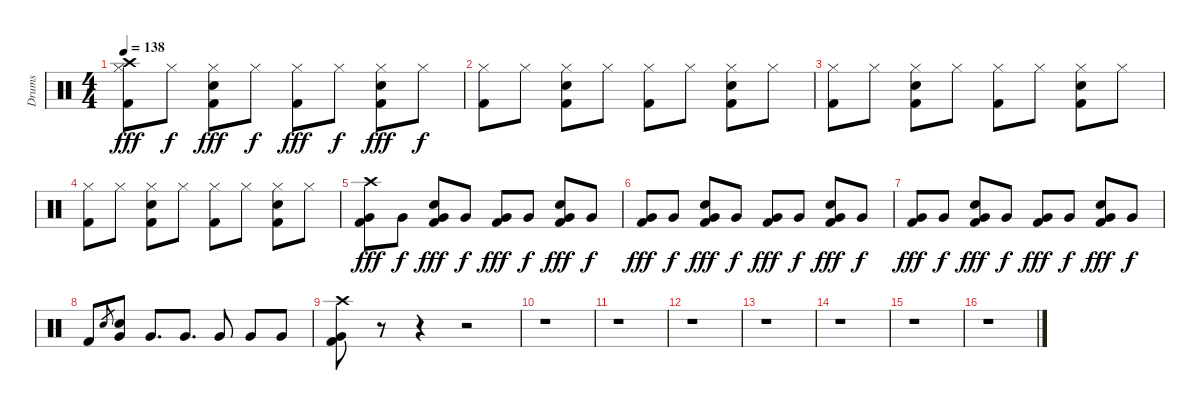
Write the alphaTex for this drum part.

\track ("Drums" "Drums") {instrument percussion}
\staff {score}
\articulation defaults
\ts (4 4)
\tempo 138
\clef neutral
\ks c
("Crash high (hit)" "Hi-Hat (closed)" "Kick (hit) 2").8{dy fff} "Hi-Hat (closed)".8{dy f} ("Hi-Hat (closed)" "Electric Snare (hit)" "Kick (hit) 2").8{dy fff} "Hi-Hat (closed)".8{dy f} ("Hi-Hat (closed)" "Kick (hit) 2").8{dy fff} "Hi-Hat (closed)".8{dy f} ("Hi-Hat (closed)" "Electric Snare (hit)" "Kick (hit) 2").8{dy fff} "Hi-Hat (closed)".8{dy f} |
("Hi-Hat (closed)" "Kick (hit) 2").8 "Hi-Hat (closed)".8 ("Hi-Hat (closed)" "Electric Snare (hit)" "Kick (hit) 2").8 "Hi-Hat (closed)".8 ("Hi-Hat (closed)" "Kick (hit) 2").8 "Hi-Hat (closed)".8 ("Hi-Hat (closed)" "Electric Snare (hit)" "Kick (hit) 2").8 "Hi-Hat (closed)".8 |
("Hi-Hat (closed)" "Kick (hit) 2").8 "Hi-Hat (closed)".8 ("Hi-Hat (closed)" "Electric Snare (hit)" "Kick (hit) 2").8 "Hi-Hat (closed)".8 ("Hi-Hat (closed)" "Kick (hit) 2").8 "Hi-Hat (closed)".8 ("Hi-Hat (closed)" "Electric Snare (hit)" "Kick (hit) 2").8 "Hi-Hat (closed)".8 |
("Hi-Hat (closed)" "Kick (hit) 2").8 "Hi-Hat (closed)".8 ("Hi-Hat (closed)" "Electric Snare (hit)" "Kick (hit) 2").8 "Hi-Hat (closed)".8 ("Hi-Hat (closed)" "Kick (hit) 2").8 "Hi-Hat (closed)".8 ("Hi-Hat (closed)" "Electric Snare (hit)" "Kick (hit) 2").8 "Hi-Hat (closed)".8 |
("Crash high (hit)" "Very Low Tom (hit)" "Kick (hit) 2").8{dy fff} "Very Low Tom (hit)".8{dy f} ("Electric Snare (hit)" "Very Low Tom (hit)" "Kick (hit) 2").8{dy fff} "Very Low Tom (hit)".8{dy f} ("Very Low Tom (hit)" "Kick (hit) 2").8{dy fff} "Very Low Tom (hit)".8{dy f} ("Electric Snare (hit)" "Very Low Tom (hit)" "Kick (hit) 2").8{dy fff} "Very Low Tom (hit)".8{dy f} |
("Very Low Tom (hit)" "Kick (hit) 2").8{dy fff} "Very Low Tom (hit)".8{dy f} ("Electric Snare (hit)" "Very Low Tom (hit)" "Kick (hit) 2").8{dy fff} "Very Low Tom (hit)".8{dy f} ("Very Low Tom (hit)" "Kick (hit) 2").8{dy fff} "Very Low Tom (hit)".8{dy f} ("Electric Snare (hit)" "Very Low Tom (hit)" "Kick (hit) 2").8{dy fff} "Very Low Tom (hit)".8{dy f} |
("Very Low Tom (hit)" "Kick (hit) 2").8{dy fff} "Very Low Tom (hit)".8{dy f} ("Electric Snare (hit)" "Very Low Tom (hit)" "Kick (hit) 2").8{dy fff} "Very Low Tom (hit)".8{dy f} ("Very Low Tom (hit)" "Kick (hit) 2").8{dy fff} "Very Low Tom (hit)".8{dy f} ("Electric Snare (hit)" "Very Low Tom (hit)" "Kick (hit) 2").8{dy fff} "Very Low Tom (hit)".8{dy f} |
"Kick (hit) 2".8 "Electric Snare (hit)".8{gr} ("Electric Snare (hit)" "Very Low Tom (hit)").8 "Very Low Tom (hit)".8{d} "Very Low Tom (hit)".8{d} "Very Low Tom (hit)".8 "Very Low Tom (hit)".8 "Very Low Tom (hit)".8 |
("Crash high (hit)" "Very Low Tom (hit)" "Kick (hit) 2").8 r.8 r.4 r.2 |
r.1 |
r.1 |
r.1 |
r.1 |
r.1 |
r.1 |
r.1
